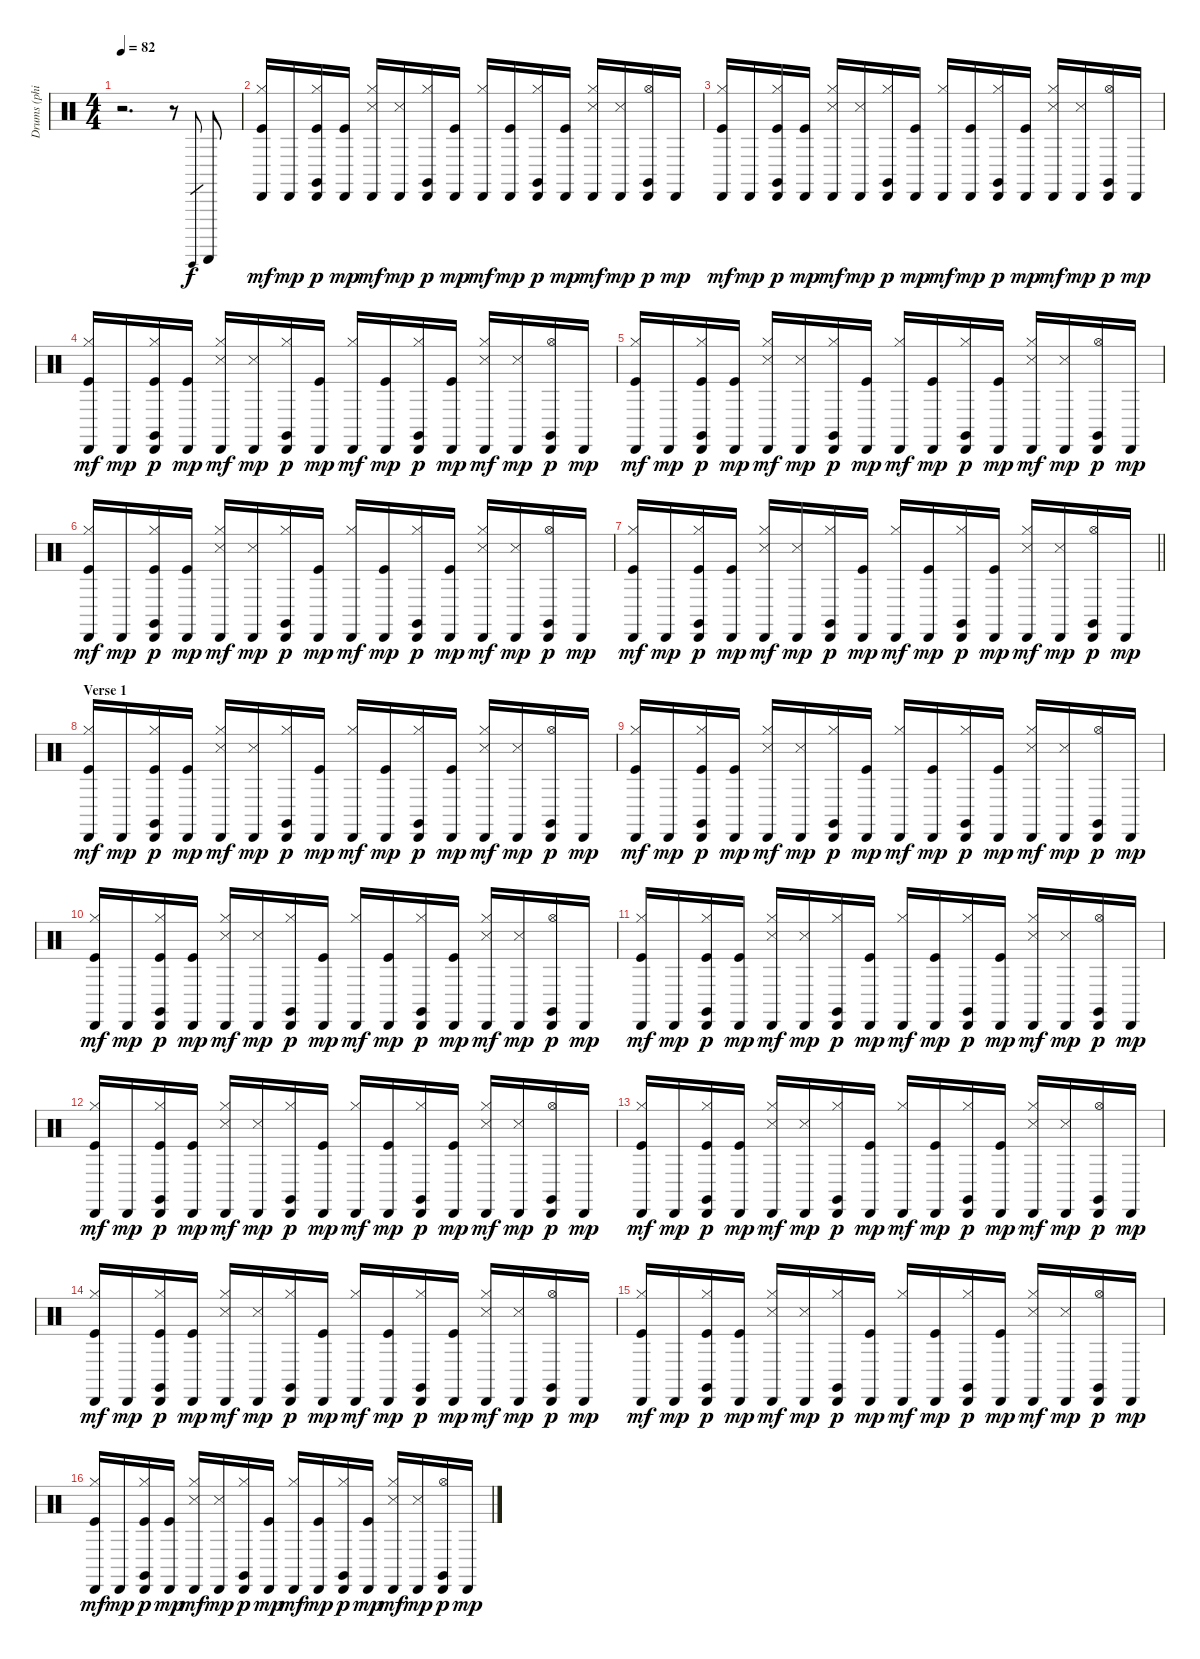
\track ("Drums (phil)" "Drums (phi") {instrument percussion}
\staff {score}
\articulation defaults
\ts (4 4)
\tempo 82
\clef neutral
\ks c
r.2{d dy f} r.8 "Guiro (hit)".8{gr} "Guiro (scrap-return)".8 |
("Hi-Hat (closed)" "Cabasa (hit)" "Kick (hit)").16{dy mf} "Cabasa (hit)".16{dy mp} ("Hi-Hat (closed)" "Cabasa (hit)" "Claves (hit)" "Kick (hit)").16{dy p} ("Cabasa (hit)" "Kick (hit)").16{dy mp} ("Hi-Hat (closed)" "Cabasa (hit)" "Snare (side stick) 3").16{dy mf} ("Cabasa (hit)" "Snare (side stick) 3").16{dy mp} ("Hi-Hat (closed)" "Cabasa (hit)" "Claves (hit)").16{dy p} ("Cabasa (hit)" "Kick (hit)").16{dy mp} ("Hi-Hat (closed)" "Cabasa (hit)").16{dy mf} ("Cabasa (hit)" "Kick (hit)").16{dy mp} ("Hi-Hat (closed)" "Cabasa (hit)" "Claves (hit)").16{dy p} ("Cabasa (hit)" "Kick (hit)").16{dy mp} ("Hi-Hat (closed)" "Cabasa (hit)" "Snare (side stick) 3").16{dy mf} ("Cabasa (hit)" "Snare (side stick) 3").16{dy mp} ("Hi-Hat (open)" "Cabasa (hit)" "Claves (hit)").16{dy p} "Cabasa (hit)".16{dy mp} |
("Hi-Hat (closed)" "Cabasa (hit)" "Kick (hit)").16{dy mf} "Cabasa (hit)".16{dy mp} ("Hi-Hat (closed)" "Cabasa (hit)" "Claves (hit)" "Kick (hit)").16{dy p} ("Cabasa (hit)" "Kick (hit)").16{dy mp} ("Hi-Hat (closed)" "Cabasa (hit)" "Snare (side stick) 3").16{dy mf} ("Cabasa (hit)" "Snare (side stick) 3").16{dy mp} ("Hi-Hat (closed)" "Cabasa (hit)" "Claves (hit)").16{dy p} ("Cabasa (hit)" "Kick (hit)").16{dy mp} ("Hi-Hat (closed)" "Cabasa (hit)").16{dy mf} ("Cabasa (hit)" "Kick (hit)").16{dy mp} ("Hi-Hat (closed)" "Cabasa (hit)" "Claves (hit)").16{dy p} ("Cabasa (hit)" "Kick (hit)").16{dy mp} ("Hi-Hat (closed)" "Cabasa (hit)" "Snare (side stick) 3").16{dy mf} ("Cabasa (hit)" "Snare (side stick) 3").16{dy mp} ("Hi-Hat (open)" "Cabasa (hit)" "Claves (hit)").16{dy p} "Cabasa (hit)".16{dy mp} |
("Hi-Hat (closed)" "Cabasa (hit)" "Kick (hit)").16{dy mf} "Cabasa (hit)".16{dy mp} ("Hi-Hat (closed)" "Cabasa (hit)" "Claves (hit)" "Kick (hit)").16{dy p} ("Cabasa (hit)" "Kick (hit)").16{dy mp} ("Hi-Hat (closed)" "Cabasa (hit)" "Snare (side stick) 3").16{dy mf} ("Cabasa (hit)" "Snare (side stick) 3").16{dy mp} ("Hi-Hat (closed)" "Cabasa (hit)" "Claves (hit)").16{dy p} ("Cabasa (hit)" "Kick (hit)").16{dy mp} ("Hi-Hat (closed)" "Cabasa (hit)").16{dy mf} ("Cabasa (hit)" "Kick (hit)").16{dy mp} ("Hi-Hat (closed)" "Cabasa (hit)" "Claves (hit)").16{dy p} ("Cabasa (hit)" "Kick (hit)").16{dy mp} ("Hi-Hat (closed)" "Cabasa (hit)" "Snare (side stick) 3").16{dy mf} ("Cabasa (hit)" "Snare (side stick) 3").16{dy mp} ("Hi-Hat (open)" "Cabasa (hit)" "Claves (hit)").16{dy p} "Cabasa (hit)".16{dy mp} |
("Hi-Hat (closed)" "Cabasa (hit)" "Kick (hit)").16{dy mf} "Cabasa (hit)".16{dy mp} ("Hi-Hat (closed)" "Cabasa (hit)" "Claves (hit)" "Kick (hit)").16{dy p} ("Cabasa (hit)" "Kick (hit)").16{dy mp} ("Hi-Hat (closed)" "Cabasa (hit)" "Snare (side stick) 3").16{dy mf} ("Cabasa (hit)" "Snare (side stick) 3").16{dy mp} ("Hi-Hat (closed)" "Cabasa (hit)" "Claves (hit)").16{dy p} ("Cabasa (hit)" "Kick (hit)").16{dy mp} ("Hi-Hat (closed)" "Cabasa (hit)").16{dy mf} ("Cabasa (hit)" "Kick (hit)").16{dy mp} ("Hi-Hat (closed)" "Cabasa (hit)" "Claves (hit)").16{dy p} ("Cabasa (hit)" "Kick (hit)").16{dy mp} ("Hi-Hat (closed)" "Cabasa (hit)" "Snare (side stick) 3").16{dy mf} ("Cabasa (hit)" "Snare (side stick) 3").16{dy mp} ("Hi-Hat (open)" "Cabasa (hit)" "Claves (hit)").16{dy p} "Cabasa (hit)".16{dy mp} |
("Hi-Hat (closed)" "Cabasa (hit)" "Kick (hit)").16{dy mf} "Cabasa (hit)".16{dy mp} ("Hi-Hat (closed)" "Cabasa (hit)" "Claves (hit)" "Kick (hit)").16{dy p} ("Cabasa (hit)" "Kick (hit)").16{dy mp} ("Hi-Hat (closed)" "Cabasa (hit)" "Snare (side stick) 3").16{dy mf} ("Cabasa (hit)" "Snare (side stick) 3").16{dy mp} ("Hi-Hat (closed)" "Cabasa (hit)" "Claves (hit)").16{dy p} ("Cabasa (hit)" "Kick (hit)").16{dy mp} ("Hi-Hat (closed)" "Cabasa (hit)").16{dy mf} ("Cabasa (hit)" "Kick (hit)").16{dy mp} ("Hi-Hat (closed)" "Cabasa (hit)" "Claves (hit)").16{dy p} ("Cabasa (hit)" "Kick (hit)").16{dy mp} ("Hi-Hat (closed)" "Cabasa (hit)" "Snare (side stick) 3").16{dy mf} ("Cabasa (hit)" "Snare (side stick) 3").16{dy mp} ("Hi-Hat (open)" "Cabasa (hit)" "Claves (hit)").16{dy p} "Cabasa (hit)".16{dy mp} |
\barLineRight lightlight
("Hi-Hat (closed)" "Cabasa (hit)" "Kick (hit)").16{dy mf} "Cabasa (hit)".16{dy mp} ("Hi-Hat (closed)" "Cabasa (hit)" "Claves (hit)" "Kick (hit)").16{dy p} ("Cabasa (hit)" "Kick (hit)").16{dy mp} ("Hi-Hat (closed)" "Cabasa (hit)" "Snare (side stick) 3").16{dy mf} ("Cabasa (hit)" "Snare (side stick) 3").16{dy mp} ("Hi-Hat (closed)" "Cabasa (hit)" "Claves (hit)").16{dy p} ("Cabasa (hit)" "Kick (hit)").16{dy mp} ("Hi-Hat (closed)" "Cabasa (hit)").16{dy mf} ("Cabasa (hit)" "Kick (hit)").16{dy mp} ("Hi-Hat (closed)" "Cabasa (hit)" "Claves (hit)").16{dy p} ("Cabasa (hit)" "Kick (hit)").16{dy mp} ("Hi-Hat (closed)" "Cabasa (hit)" "Snare (side stick) 3").16{dy mf} ("Cabasa (hit)" "Snare (side stick) 3").16{dy mp} ("Hi-Hat (open)" "Cabasa (hit)" "Claves (hit)").16{dy p} "Cabasa (hit)".16{dy mp} |
\section ("" "Verse 1")
("Hi-Hat (closed)" "Cabasa (hit)" "Kick (hit)").16{dy mf} "Cabasa (hit)".16{dy mp} ("Hi-Hat (closed)" "Cabasa (hit)" "Claves (hit)" "Kick (hit)").16{dy p} ("Cabasa (hit)" "Kick (hit)").16{dy mp} ("Hi-Hat (closed)" "Cabasa (hit)" "Snare (side stick) 3").16{dy mf} ("Cabasa (hit)" "Snare (side stick) 3").16{dy mp} ("Hi-Hat (closed)" "Cabasa (hit)" "Claves (hit)").16{dy p} ("Cabasa (hit)" "Kick (hit)").16{dy mp} ("Hi-Hat (closed)" "Cabasa (hit)").16{dy mf} ("Cabasa (hit)" "Kick (hit)").16{dy mp} ("Hi-Hat (closed)" "Cabasa (hit)" "Claves (hit)").16{dy p} ("Cabasa (hit)" "Kick (hit)").16{dy mp} ("Hi-Hat (closed)" "Cabasa (hit)" "Snare (side stick) 3").16{dy mf} ("Cabasa (hit)" "Snare (side stick) 3").16{dy mp} ("Hi-Hat (open)" "Cabasa (hit)" "Claves (hit)").16{dy p} "Cabasa (hit)".16{dy mp} |
("Hi-Hat (closed)" "Cabasa (hit)" "Kick (hit)").16{dy mf} "Cabasa (hit)".16{dy mp} ("Hi-Hat (closed)" "Cabasa (hit)" "Claves (hit)" "Kick (hit)").16{dy p} ("Cabasa (hit)" "Kick (hit)").16{dy mp} ("Hi-Hat (closed)" "Cabasa (hit)" "Snare (side stick) 3").16{dy mf} ("Cabasa (hit)" "Snare (side stick) 3").16{dy mp} ("Hi-Hat (closed)" "Cabasa (hit)" "Claves (hit)").16{dy p} ("Cabasa (hit)" "Kick (hit)").16{dy mp} ("Hi-Hat (closed)" "Cabasa (hit)").16{dy mf} ("Cabasa (hit)" "Kick (hit)").16{dy mp} ("Hi-Hat (closed)" "Cabasa (hit)" "Claves (hit)").16{dy p} ("Cabasa (hit)" "Kick (hit)").16{dy mp} ("Hi-Hat (closed)" "Cabasa (hit)" "Snare (side stick) 3").16{dy mf} ("Cabasa (hit)" "Snare (side stick) 3").16{dy mp} ("Hi-Hat (open)" "Cabasa (hit)" "Claves (hit)").16{dy p} "Cabasa (hit)".16{dy mp} |
("Hi-Hat (closed)" "Cabasa (hit)" "Kick (hit)").16{dy mf} "Cabasa (hit)".16{dy mp} ("Hi-Hat (closed)" "Cabasa (hit)" "Claves (hit)" "Kick (hit)").16{dy p} ("Cabasa (hit)" "Kick (hit)").16{dy mp} ("Hi-Hat (closed)" "Cabasa (hit)" "Snare (side stick) 3").16{dy mf} ("Cabasa (hit)" "Snare (side stick) 3").16{dy mp} ("Hi-Hat (closed)" "Cabasa (hit)" "Claves (hit)").16{dy p} ("Cabasa (hit)" "Kick (hit)").16{dy mp} ("Hi-Hat (closed)" "Cabasa (hit)").16{dy mf} ("Cabasa (hit)" "Kick (hit)").16{dy mp} ("Hi-Hat (closed)" "Cabasa (hit)" "Claves (hit)").16{dy p} ("Cabasa (hit)" "Kick (hit)").16{dy mp} ("Hi-Hat (closed)" "Cabasa (hit)" "Snare (side stick) 3").16{dy mf} ("Cabasa (hit)" "Snare (side stick) 3").16{dy mp} ("Hi-Hat (open)" "Cabasa (hit)" "Claves (hit)").16{dy p} "Cabasa (hit)".16{dy mp} |
("Hi-Hat (closed)" "Cabasa (hit)" "Kick (hit)").16{dy mf} "Cabasa (hit)".16{dy mp} ("Hi-Hat (closed)" "Cabasa (hit)" "Claves (hit)" "Kick (hit)").16{dy p} ("Cabasa (hit)" "Kick (hit)").16{dy mp} ("Hi-Hat (closed)" "Cabasa (hit)" "Snare (side stick) 3").16{dy mf} ("Cabasa (hit)" "Snare (side stick) 3").16{dy mp} ("Hi-Hat (closed)" "Cabasa (hit)" "Claves (hit)").16{dy p} ("Cabasa (hit)" "Kick (hit)").16{dy mp} ("Hi-Hat (closed)" "Cabasa (hit)").16{dy mf} ("Cabasa (hit)" "Kick (hit)").16{dy mp} ("Hi-Hat (closed)" "Cabasa (hit)" "Claves (hit)").16{dy p} ("Cabasa (hit)" "Kick (hit)").16{dy mp} ("Hi-Hat (closed)" "Cabasa (hit)" "Snare (side stick) 3").16{dy mf} ("Cabasa (hit)" "Snare (side stick) 3").16{dy mp} ("Hi-Hat (open)" "Cabasa (hit)" "Claves (hit)").16{dy p} "Cabasa (hit)".16{dy mp} |
("Hi-Hat (closed)" "Cabasa (hit)" "Kick (hit)").16{dy mf} "Cabasa (hit)".16{dy mp} ("Hi-Hat (closed)" "Cabasa (hit)" "Claves (hit)" "Kick (hit)").16{dy p} ("Cabasa (hit)" "Kick (hit)").16{dy mp} ("Hi-Hat (closed)" "Cabasa (hit)" "Snare (side stick) 3").16{dy mf} ("Cabasa (hit)" "Snare (side stick) 3").16{dy mp} ("Hi-Hat (closed)" "Cabasa (hit)" "Claves (hit)").16{dy p} ("Cabasa (hit)" "Kick (hit)").16{dy mp} ("Hi-Hat (closed)" "Cabasa (hit)").16{dy mf} ("Cabasa (hit)" "Kick (hit)").16{dy mp} ("Hi-Hat (closed)" "Cabasa (hit)" "Claves (hit)").16{dy p} ("Cabasa (hit)" "Kick (hit)").16{dy mp} ("Hi-Hat (closed)" "Cabasa (hit)" "Snare (side stick) 3").16{dy mf} ("Cabasa (hit)" "Snare (side stick) 3").16{dy mp} ("Hi-Hat (open)" "Cabasa (hit)" "Claves (hit)").16{dy p} "Cabasa (hit)".16{dy mp} |
("Hi-Hat (closed)" "Cabasa (hit)" "Kick (hit)").16{dy mf} "Cabasa (hit)".16{dy mp} ("Hi-Hat (closed)" "Cabasa (hit)" "Claves (hit)" "Kick (hit)").16{dy p} ("Cabasa (hit)" "Kick (hit)").16{dy mp} ("Hi-Hat (closed)" "Cabasa (hit)" "Snare (side stick) 3").16{dy mf} ("Cabasa (hit)" "Snare (side stick) 3").16{dy mp} ("Hi-Hat (closed)" "Cabasa (hit)" "Claves (hit)").16{dy p} ("Cabasa (hit)" "Kick (hit)").16{dy mp} ("Hi-Hat (closed)" "Cabasa (hit)").16{dy mf} ("Cabasa (hit)" "Kick (hit)").16{dy mp} ("Hi-Hat (closed)" "Cabasa (hit)" "Claves (hit)").16{dy p} ("Cabasa (hit)" "Kick (hit)").16{dy mp} ("Hi-Hat (closed)" "Cabasa (hit)" "Snare (side stick) 3").16{dy mf} ("Cabasa (hit)" "Snare (side stick) 3").16{dy mp} ("Hi-Hat (open)" "Cabasa (hit)" "Claves (hit)").16{dy p} "Cabasa (hit)".16{dy mp} |
("Hi-Hat (closed)" "Cabasa (hit)" "Kick (hit)").16{dy mf} "Cabasa (hit)".16{dy mp} ("Hi-Hat (closed)" "Cabasa (hit)" "Claves (hit)" "Kick (hit)").16{dy p} ("Cabasa (hit)" "Kick (hit)").16{dy mp} ("Hi-Hat (closed)" "Cabasa (hit)" "Snare (side stick) 3").16{dy mf} ("Cabasa (hit)" "Snare (side stick) 3").16{dy mp} ("Hi-Hat (closed)" "Cabasa (hit)" "Claves (hit)").16{dy p} ("Cabasa (hit)" "Kick (hit)").16{dy mp} ("Hi-Hat (closed)" "Cabasa (hit)").16{dy mf} ("Cabasa (hit)" "Kick (hit)").16{dy mp} ("Hi-Hat (closed)" "Cabasa (hit)" "Claves (hit)").16{dy p} ("Cabasa (hit)" "Kick (hit)").16{dy mp} ("Hi-Hat (closed)" "Cabasa (hit)" "Snare (side stick) 3").16{dy mf} ("Cabasa (hit)" "Snare (side stick) 3").16{dy mp} ("Hi-Hat (open)" "Cabasa (hit)" "Claves (hit)").16{dy p} "Cabasa (hit)".16{dy mp} |
("Hi-Hat (closed)" "Cabasa (hit)" "Kick (hit)").16{dy mf} "Cabasa (hit)".16{dy mp} ("Hi-Hat (closed)" "Cabasa (hit)" "Claves (hit)" "Kick (hit)").16{dy p} ("Cabasa (hit)" "Kick (hit)").16{dy mp} ("Hi-Hat (closed)" "Cabasa (hit)" "Snare (side stick) 3").16{dy mf} ("Cabasa (hit)" "Snare (side stick) 3").16{dy mp} ("Hi-Hat (closed)" "Cabasa (hit)" "Claves (hit)").16{dy p} ("Cabasa (hit)" "Kick (hit)").16{dy mp} ("Hi-Hat (closed)" "Cabasa (hit)").16{dy mf} ("Cabasa (hit)" "Kick (hit)").16{dy mp} ("Hi-Hat (closed)" "Cabasa (hit)" "Claves (hit)").16{dy p} ("Cabasa (hit)" "Kick (hit)").16{dy mp} ("Hi-Hat (closed)" "Cabasa (hit)" "Snare (side stick) 3").16{dy mf} ("Cabasa (hit)" "Snare (side stick) 3").16{dy mp} ("Hi-Hat (open)" "Cabasa (hit)" "Claves (hit)").16{dy p} "Cabasa (hit)".16{dy mp} |
("Hi-Hat (closed)" "Cabasa (hit)" "Kick (hit)").16{dy mf} "Cabasa (hit)".16{dy mp} ("Hi-Hat (closed)" "Cabasa (hit)" "Claves (hit)" "Kick (hit)").16{dy p} ("Cabasa (hit)" "Kick (hit)").16{dy mp} ("Hi-Hat (closed)" "Cabasa (hit)" "Snare (side stick) 3").16{dy mf} ("Cabasa (hit)" "Snare (side stick) 3").16{dy mp} ("Hi-Hat (closed)" "Cabasa (hit)" "Claves (hit)").16{dy p} ("Cabasa (hit)" "Kick (hit)").16{dy mp} ("Hi-Hat (closed)" "Cabasa (hit)").16{dy mf} ("Cabasa (hit)" "Kick (hit)").16{dy mp} ("Hi-Hat (closed)" "Cabasa (hit)" "Claves (hit)").16{dy p} ("Cabasa (hit)" "Kick (hit)").16{dy mp} ("Hi-Hat (closed)" "Cabasa (hit)" "Snare (side stick) 3").16{dy mf} ("Cabasa (hit)" "Snare (side stick) 3").16{dy mp} ("Hi-Hat (open)" "Cabasa (hit)" "Claves (hit)").16{dy p} "Cabasa (hit)".16{dy mp}
